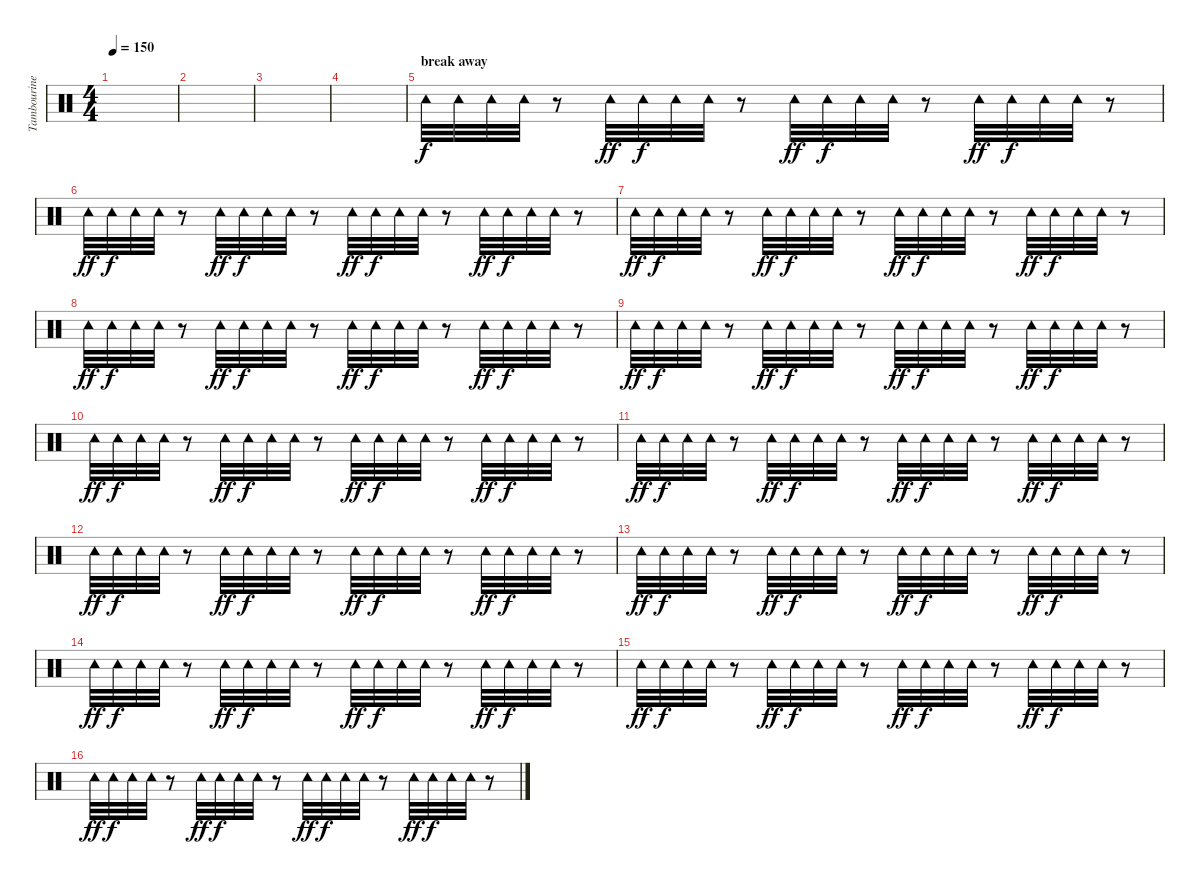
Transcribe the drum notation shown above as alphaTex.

\track ("Tambourine" "Tambourine") {instrument percussion}
\staff {score}
\articulation defaults
\ts (4 4)
\tempo 150
\clef neutral
\ks c
|
|
|
|
\section ("" "break away")
"Tambourine (hit)".32 "Tambourine (hit)".32{dy f} "Tambourine (hit)".32 "Tambourine (hit)".32 r.8 "Tambourine (hit)".32{dy ff} "Tambourine (hit)".32{dy f} "Tambourine (hit)".32 "Tambourine (hit)".32 r.8 "Tambourine (hit)".32{dy ff} "Tambourine (hit)".32{dy f} "Tambourine (hit)".32 "Tambourine (hit)".32 r.8 "Tambourine (hit)".32{dy ff} "Tambourine (hit)".32{dy f} "Tambourine (hit)".32 "Tambourine (hit)".32 r.8 |
"Tambourine (hit)".32{dy ff} "Tambourine (hit)".32{dy f} "Tambourine (hit)".32 "Tambourine (hit)".32 r.8 "Tambourine (hit)".32{dy ff} "Tambourine (hit)".32{dy f} "Tambourine (hit)".32 "Tambourine (hit)".32 r.8 "Tambourine (hit)".32{dy ff} "Tambourine (hit)".32{dy f} "Tambourine (hit)".32 "Tambourine (hit)".32 r.8 "Tambourine (hit)".32{dy ff} "Tambourine (hit)".32{dy f} "Tambourine (hit)".32 "Tambourine (hit)".32 r.8 |
"Tambourine (hit)".32{dy ff} "Tambourine (hit)".32{dy f} "Tambourine (hit)".32 "Tambourine (hit)".32 r.8 "Tambourine (hit)".32{dy ff} "Tambourine (hit)".32{dy f} "Tambourine (hit)".32 "Tambourine (hit)".32 r.8 "Tambourine (hit)".32{dy ff} "Tambourine (hit)".32{dy f} "Tambourine (hit)".32 "Tambourine (hit)".32 r.8 "Tambourine (hit)".32{dy ff} "Tambourine (hit)".32{dy f} "Tambourine (hit)".32 "Tambourine (hit)".32 r.8 |
"Tambourine (hit)".32{dy ff} "Tambourine (hit)".32{dy f} "Tambourine (hit)".32 "Tambourine (hit)".32 r.8 "Tambourine (hit)".32{dy ff} "Tambourine (hit)".32{dy f} "Tambourine (hit)".32 "Tambourine (hit)".32 r.8 "Tambourine (hit)".32{dy ff} "Tambourine (hit)".32{dy f} "Tambourine (hit)".32 "Tambourine (hit)".32 r.8 "Tambourine (hit)".32{dy ff} "Tambourine (hit)".32{dy f} "Tambourine (hit)".32 "Tambourine (hit)".32 r.8 |
"Tambourine (hit)".32{dy ff} "Tambourine (hit)".32{dy f} "Tambourine (hit)".32 "Tambourine (hit)".32 r.8 "Tambourine (hit)".32{dy ff} "Tambourine (hit)".32{dy f} "Tambourine (hit)".32 "Tambourine (hit)".32 r.8 "Tambourine (hit)".32{dy ff} "Tambourine (hit)".32{dy f} "Tambourine (hit)".32 "Tambourine (hit)".32 r.8 "Tambourine (hit)".32{dy ff} "Tambourine (hit)".32{dy f} "Tambourine (hit)".32 "Tambourine (hit)".32 r.8 |
"Tambourine (hit)".32{dy ff} "Tambourine (hit)".32{dy f} "Tambourine (hit)".32 "Tambourine (hit)".32 r.8 "Tambourine (hit)".32{dy ff} "Tambourine (hit)".32{dy f} "Tambourine (hit)".32 "Tambourine (hit)".32 r.8 "Tambourine (hit)".32{dy ff} "Tambourine (hit)".32{dy f} "Tambourine (hit)".32 "Tambourine (hit)".32 r.8 "Tambourine (hit)".32{dy ff} "Tambourine (hit)".32{dy f} "Tambourine (hit)".32 "Tambourine (hit)".32 r.8 |
"Tambourine (hit)".32{dy ff} "Tambourine (hit)".32{dy f} "Tambourine (hit)".32 "Tambourine (hit)".32 r.8 "Tambourine (hit)".32{dy ff} "Tambourine (hit)".32{dy f} "Tambourine (hit)".32 "Tambourine (hit)".32 r.8 "Tambourine (hit)".32{dy ff} "Tambourine (hit)".32{dy f} "Tambourine (hit)".32 "Tambourine (hit)".32 r.8 "Tambourine (hit)".32{dy ff} "Tambourine (hit)".32{dy f} "Tambourine (hit)".32 "Tambourine (hit)".32 r.8 |
"Tambourine (hit)".32{dy ff} "Tambourine (hit)".32{dy f} "Tambourine (hit)".32 "Tambourine (hit)".32 r.8 "Tambourine (hit)".32{dy ff} "Tambourine (hit)".32{dy f} "Tambourine (hit)".32 "Tambourine (hit)".32 r.8 "Tambourine (hit)".32{dy ff} "Tambourine (hit)".32{dy f} "Tambourine (hit)".32 "Tambourine (hit)".32 r.8 "Tambourine (hit)".32{dy ff} "Tambourine (hit)".32{dy f} "Tambourine (hit)".32 "Tambourine (hit)".32 r.8 |
"Tambourine (hit)".32{dy ff} "Tambourine (hit)".32{dy f} "Tambourine (hit)".32 "Tambourine (hit)".32 r.8 "Tambourine (hit)".32{dy ff} "Tambourine (hit)".32{dy f} "Tambourine (hit)".32 "Tambourine (hit)".32 r.8 "Tambourine (hit)".32{dy ff} "Tambourine (hit)".32{dy f} "Tambourine (hit)".32 "Tambourine (hit)".32 r.8 "Tambourine (hit)".32{dy ff} "Tambourine (hit)".32{dy f} "Tambourine (hit)".32 "Tambourine (hit)".32 r.8 |
"Tambourine (hit)".32{dy ff} "Tambourine (hit)".32{dy f} "Tambourine (hit)".32 "Tambourine (hit)".32 r.8 "Tambourine (hit)".32{dy ff} "Tambourine (hit)".32{dy f} "Tambourine (hit)".32 "Tambourine (hit)".32 r.8 "Tambourine (hit)".32{dy ff} "Tambourine (hit)".32{dy f} "Tambourine (hit)".32 "Tambourine (hit)".32 r.8 "Tambourine (hit)".32{dy ff} "Tambourine (hit)".32{dy f} "Tambourine (hit)".32 "Tambourine (hit)".32 r.8 |
"Tambourine (hit)".32{dy ff} "Tambourine (hit)".32{dy f} "Tambourine (hit)".32 "Tambourine (hit)".32 r.8 "Tambourine (hit)".32{dy ff} "Tambourine (hit)".32{dy f} "Tambourine (hit)".32 "Tambourine (hit)".32 r.8 "Tambourine (hit)".32{dy ff} "Tambourine (hit)".32{dy f} "Tambourine (hit)".32 "Tambourine (hit)".32 r.8 "Tambourine (hit)".32{dy ff} "Tambourine (hit)".32{dy f} "Tambourine (hit)".32 "Tambourine (hit)".32 r.8 |
"Tambourine (hit)".32{dy ff} "Tambourine (hit)".32{dy f} "Tambourine (hit)".32 "Tambourine (hit)".32 r.8 "Tambourine (hit)".32{dy ff} "Tambourine (hit)".32{dy f} "Tambourine (hit)".32 "Tambourine (hit)".32 r.8 "Tambourine (hit)".32{dy ff} "Tambourine (hit)".32{dy f} "Tambourine (hit)".32 "Tambourine (hit)".32 r.8 "Tambourine (hit)".32{dy ff} "Tambourine (hit)".32{dy f} "Tambourine (hit)".32 "Tambourine (hit)".32 r.8
